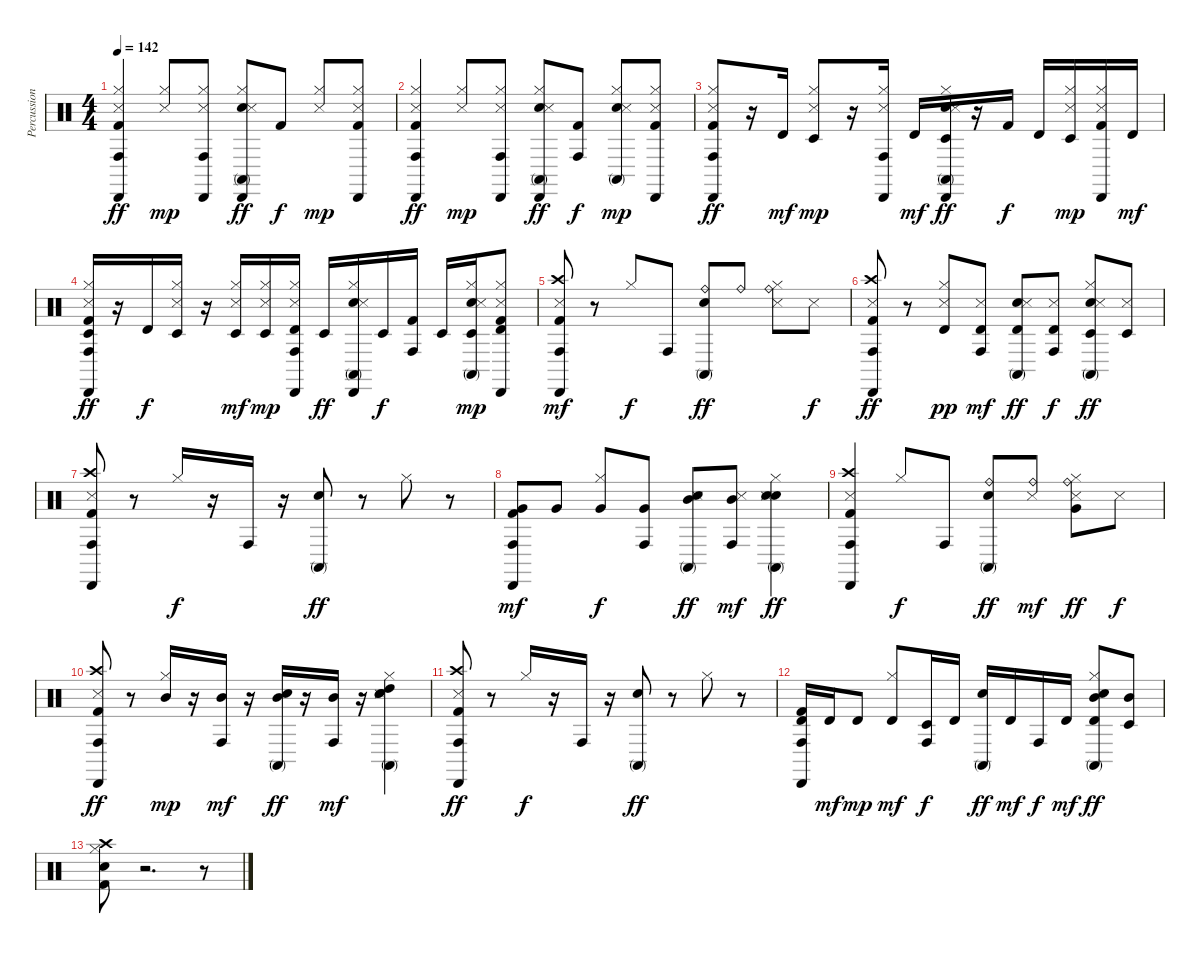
\track ("Percussion Booster" "Percussion") {instrument percussion}
\staff {score}
\articulation defaults
\ts (4 4)
\tempo 142
\clef neutral
\ks c
("Conga high (hit)" "Cabasa (hit)" "Hi-Hat (closed)" "Snare (side stick) 3" "Kick (hit) 2").4{dy ff} ("Hi-Hat (closed)" "Snare (side stick) 3").8{dy mp} ("Conga high (hit)" "Cabasa (hit)" "Hi-Hat (closed)" "Snare (side stick) 3").8 ("Conga high (mute)" "Cabasa (hit)" "Hi-Hat (closed)" "Hand Clap (hit)" "Snare (side stick) 3").8{dy ff} "Kick (hit) 2".8{dy f} ("Hi-Hat (closed)" "Snare (side stick) 3").8{dy mp} ("Cabasa (hit)" "Hi-Hat (closed)" "Snare (side stick) 3" "Kick (hit) 2").8 |
("Conga high (hit)" "Cabasa (hit)" "Hi-Hat (closed)" "Snare (side stick) 3" "Kick (hit) 2").4{dy ff} ("Hi-Hat (closed)" "Snare (side stick) 3").8{dy mp} ("Conga high (hit)" "Cabasa (hit)" "Hi-Hat (closed)" "Snare (side stick) 3").8 ("Conga high (mute)" "Cabasa (hit)" "Hi-Hat (closed)" "Hand Clap (hit)" "Snare (side stick) 3").8{dy ff} ("Conga high (hit)" "Kick (hit) 2").8{dy f} ("Conga high (mute)" "Hi-Hat (closed)" "Hand Clap (hit)" "Snare (side stick) 3").8{dy mp} ("Cabasa (hit)" "Hi-Hat (closed)" "Snare (side stick) 3" "Kick (hit) 2").8 |
("Conga high (hit)" "Cabasa (hit)" "Hi-Hat (closed)" "Snare (side stick) 3" "Kick (hit) 2").8{dy ff} r.16 "Timbale high (hit)".16{dy mf} ("Timbale low (hit)" "Hi-Hat (closed)" "Snare (side stick) 3").8{dy mp} r.16 ("Conga high (hit)" "Cabasa (hit)" "Hi-Hat (closed)" "Snare (side stick) 3").16 "Timbale high (hit)".16{dy mf} ("Timbale low (hit)" "Conga high (mute)" "Cabasa (hit)" "Hi-Hat (closed)" "Hand Clap (hit)" "Snare (side stick) 3").16{dy ff} r.16 "Kick (hit) 2".16{dy f} "Timbale high (hit)".16 ("Timbale low (hit)" "Hi-Hat (closed)" "Snare (side stick) 3").16{dy mp} ("Cabasa (hit)" "Hi-Hat (closed)" "Snare (side stick) 3" "Kick (hit) 2").16 "Timbale high (hit)".16{dy mf} |
("Timbale low (hit)" "Conga high (hit)" "Cabasa (hit)" "Hi-Hat (closed)" "Snare (side stick) 3" "Kick (hit) 2").16{dy ff} r.16 "Timbale high (hit)".16{dy f} ("Timbale low (hit)" "Hi-Hat (closed)" "Snare (side stick) 3").16 r.16 ("Timbale low (hit)" "Hi-Hat (closed)" "Snare (side stick) 3").16{dy mf} ("Timbale low (hit)" "Hi-Hat (closed)" "Snare (side stick) 3").16{dy mp} ("Timbale high (hit)" "Conga high (hit)" "Cabasa (hit)" "Hi-Hat (closed)" "Snare (side stick) 3").16 "Timbale low (hit)".16{dy ff} ("Conga high (mute)" "Cabasa (hit)" "Hi-Hat (closed)" "Hand Clap (hit)" "Snare (side stick) 3").16 "Timbale low (hit)".16{dy f} ("Conga high (hit)" "Kick (hit) 2").16 "Timbale low (hit)".16 ("Timbale low (hit)" "Conga high (mute)" "Hi-Hat (closed)" "Hand Clap (hit)" "Snare (side stick) 3").16{dy mp} ("Timbale high (hit)" "Cabasa (hit)" "Hi-Hat (closed)" "Snare (side stick) 3" "Kick (hit) 2").8 |
("Conga high (hit)" "Cabasa (hit)" "Crash high (hit)" "Snare (side stick) 3" "Kick (hit) 2").8{dy mf} r.8 "Hi-Hat (closed)".8{dy f} "Conga high (hit)".8 ("Conga high (mute)" "Ride (bell)" "Hand Clap (hit)").8{dy ff} "Ride (bell)".8 ("Ride (bell)" "Hi-Hat (closed)" "Snare (side stick) 3").8 "Snare (side stick) 3".8{dy f} |
("Conga high (hit)" "Cabasa (hit)" "Crash high (hit)" "Snare (side stick) 3" "Kick (hit) 2").8{dy ff} r.8 ("Timbale high (hit)" "Hi-Hat (closed)" "Snare (side stick) 3").8{dy pp} ("Timbale high (hit)" "Conga high (hit)" "Snare (side stick) 3").8{dy mf} ("Timbale high (hit)" "Conga high (mute)" "Hand Clap (hit)" "Snare (side stick) 3").8{dy ff} ("Timbale high (hit)" "Conga high (hit)" "Snare (side stick) 3").8{dy f} ("Timbale low (hit)" "Conga high (mute)" "Hi-Hat (closed)" "Hand Clap (hit)" "Snare (side stick) 3").8{dy ff} ("Timbale low (hit)" "Snare (side stick) 3").8 |
("Conga high (hit)" "Cabasa (hit)" "Crash high (hit)" "Snare (side stick) 3" "Kick (hit) 2").8 r.8 "Hi-Hat (closed)".16{dy f} r.16 "Conga high (hit)".16 r.16 ("Conga high (mute)" "Hand Clap (hit)").8{dy ff} r.8 "Hi-Hat (closed)".8 r.8 |
("Conga high (hit)" "Cabasa (hit)" "Very Low Tom (hit)" "Kick (hit) 2").8{dy mf} "Very Low Tom (hit)".8 ("Very Low Tom (hit)" "Hi-Hat (closed)").8{dy f} ("Conga high (hit)" "Very Low Tom (hit)").8 ("Conga high (mute)" "Mid Tom (hit)" "Hand Clap (hit)" "Snare (side stick) 3").8{dy ff} ("Conga high (hit)" "Mid Tom (hit)" "Snare (side stick) 3").8{dy mf} ("Conga high (mute)" "Hi-Hat (closed)" "Hand Clap (hit)" "Snare (hit) 2" "Snare (side stick) 3").4{dy ff} |
("Conga high (hit)" "Cabasa (hit)" "Crash high (hit)" "Snare (side stick) 3" "Kick (hit) 2").4 "Hi-Hat (closed)".8{dy f} "Conga high (hit)".8 ("Conga high (mute)" "Ride (bell)" "Hand Clap (hit)").8{dy ff} ("Ride (bell)" "Snare (side stick) 3").8{dy mf} ("Very Low Tom (hit)" "Ride (bell)" "Hi-Hat (closed)" "Snare (side stick) 3").8{dy ff} "Snare (side stick) 3".8{dy f} |
("Conga high (hit)" "Cabasa (hit)" "Crash high (hit)" "Snare (side stick) 3" "Kick (hit) 2").8{dy ff} r.8 ("Mid Tom (hit)" "Hi-Hat (closed)").16{dy mp} r.16 ("Conga high (hit)" "Mid Tom (hit)").16{dy mf} r.16 ("Conga high (mute)" "Mid Tom (hit)" "Hand Clap (hit)").16{dy ff} r.16 ("Conga high (hit)" "Mid Tom (hit)").16{dy mf} r.16 ("Conga high (mute)" "High Tom (hit)" "Hi-Hat (closed)" "Hand Clap (hit)" "Snare (hit) 2" "Snare (side stick) 3").4 |
("Conga high (hit)" "Cabasa (hit)" "Crash high (hit)" "Snare (side stick) 3" "Kick (hit) 2").8{dy ff} r.8 "Hi-Hat (closed)".16{dy f} r.16 "Conga high (hit)".16 r.16 ("Conga high (mute)" "Hand Clap (hit)").8{dy ff} r.8 "Hi-Hat (closed)".8 r.8 |
("Timbale high (hit)" "Conga high (hit)" "Cabasa (hit)" "Kick (hit) 2").16 "Timbale high (hit)".16{dy mf} "Timbale high (hit)".8{dy mp} ("Timbale high (hit)" "Hi-Hat (closed)").8{dy mf} ("Timbale low (hit)" "Conga high (hit)").16{dy f} "Timbale high (hit)".16 ("Conga high (mute)" "Hand Clap (hit)").16{dy ff} "Timbale high (hit)".16{dy mf} "Conga high (hit)".16{dy f} "Timbale high (hit)".16{dy mf} ("Timbale high (hit)" "Conga high (mute)" "Mid Tom (hit)" "Hi-Hat (closed)" "Hand Clap (hit)").8{dy ff} ("Timbale low (hit)" "Mid Tom (hit)").8 |
("Crash high (hit)" "Hi-Hat (closed)" "Hand Clap (hit)" "Kick (hit) 2").8 r.2{d} r.8
